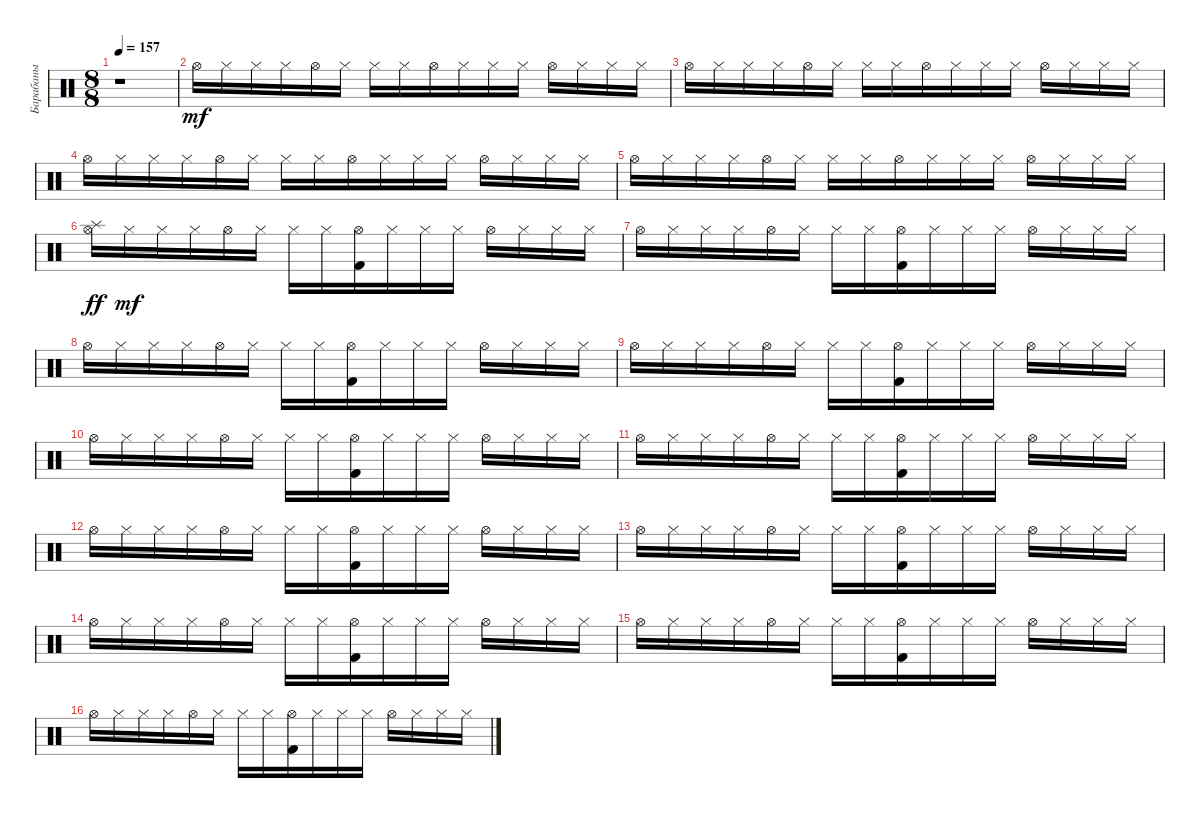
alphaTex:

\track ("Барабаны" "Барабаны") {instrument percussion}
\staff {score}
\articulation defaults
\ts (8 8)
\tempo 157
\clef neutral
\ks c
r.1{dy mf} |
"Hi-Hat (open)".16 "Hi-Hat (closed)".16 "Hi-Hat (closed)".16 "Hi-Hat (closed)".16 "Hi-Hat (open)".16 "Hi-Hat (closed)".16 "Hi-Hat (closed)".16 "Hi-Hat (closed)".16 "Hi-Hat (open)".16 "Hi-Hat (closed)".16 "Hi-Hat (closed)".16 "Hi-Hat (closed)".16 "Hi-Hat (open)".16 "Hi-Hat (closed)".16 "Hi-Hat (closed)".16 "Hi-Hat (closed)".16 |
"Hi-Hat (open)".16 "Hi-Hat (closed)".16 "Hi-Hat (closed)".16 "Hi-Hat (closed)".16 "Hi-Hat (open)".16 "Hi-Hat (closed)".16 "Hi-Hat (closed)".16 "Hi-Hat (closed)".16 "Hi-Hat (open)".16 "Hi-Hat (closed)".16 "Hi-Hat (closed)".16 "Hi-Hat (closed)".16 "Hi-Hat (open)".16 "Hi-Hat (closed)".16 "Hi-Hat (closed)".16 "Hi-Hat (closed)".16 |
"Hi-Hat (open)".16 "Hi-Hat (closed)".16 "Hi-Hat (closed)".16 "Hi-Hat (closed)".16 "Hi-Hat (open)".16 "Hi-Hat (closed)".16 "Hi-Hat (closed)".16 "Hi-Hat (closed)".16 "Hi-Hat (open)".16 "Hi-Hat (closed)".16 "Hi-Hat (closed)".16 "Hi-Hat (closed)".16 "Hi-Hat (open)".16 "Hi-Hat (closed)".16 "Hi-Hat (closed)".16 "Hi-Hat (closed)".16 |
"Hi-Hat (open)".16 "Hi-Hat (closed)".16 "Hi-Hat (closed)".16 "Hi-Hat (closed)".16 "Hi-Hat (open)".16 "Hi-Hat (closed)".16 "Hi-Hat (closed)".16 "Hi-Hat (closed)".16 "Hi-Hat (open)".16 "Hi-Hat (closed)".16 "Hi-Hat (closed)".16 "Hi-Hat (closed)".16 "Hi-Hat (open)".16 "Hi-Hat (closed)".16 "Hi-Hat (closed)".16 "Hi-Hat (closed)".16 |
("Hi-Hat (open)" "Splash (hit)").16{dy ff} "Hi-Hat (closed)".16{dy mf} "Hi-Hat (closed)".16 "Hi-Hat (closed)".16 "Hi-Hat (open)".16 "Hi-Hat (closed)".16 "Hi-Hat (closed)".16 "Hi-Hat (closed)".16 ("Kick (hit) 2" "Hi-Hat (open)").16 "Hi-Hat (closed)".16 "Hi-Hat (closed)".16 "Hi-Hat (closed)".16 "Hi-Hat (open)".16 "Hi-Hat (closed)".16 "Hi-Hat (closed)".16 "Hi-Hat (closed)".16 |
"Hi-Hat (open)".16 "Hi-Hat (closed)".16 "Hi-Hat (closed)".16 "Hi-Hat (closed)".16 "Hi-Hat (open)".16 "Hi-Hat (closed)".16 "Hi-Hat (closed)".16 "Hi-Hat (closed)".16 ("Kick (hit) 2" "Hi-Hat (open)").16 "Hi-Hat (closed)".16 "Hi-Hat (closed)".16 "Hi-Hat (closed)".16 "Hi-Hat (open)".16 "Hi-Hat (closed)".16 "Hi-Hat (closed)".16 "Hi-Hat (closed)".16 |
"Hi-Hat (open)".16 "Hi-Hat (closed)".16 "Hi-Hat (closed)".16 "Hi-Hat (closed)".16 "Hi-Hat (open)".16 "Hi-Hat (closed)".16 "Hi-Hat (closed)".16 "Hi-Hat (closed)".16 ("Kick (hit) 2" "Hi-Hat (open)").16 "Hi-Hat (closed)".16 "Hi-Hat (closed)".16 "Hi-Hat (closed)".16 "Hi-Hat (open)".16 "Hi-Hat (closed)".16 "Hi-Hat (closed)".16 "Hi-Hat (closed)".16 |
"Hi-Hat (open)".16 "Hi-Hat (closed)".16 "Hi-Hat (closed)".16 "Hi-Hat (closed)".16 "Hi-Hat (open)".16 "Hi-Hat (closed)".16 "Hi-Hat (closed)".16 "Hi-Hat (closed)".16 ("Kick (hit) 2" "Hi-Hat (open)").16 "Hi-Hat (closed)".16 "Hi-Hat (closed)".16 "Hi-Hat (closed)".16 "Hi-Hat (open)".16 "Hi-Hat (closed)".16 "Hi-Hat (closed)".16 "Hi-Hat (closed)".16 |
"Hi-Hat (open)".16 "Hi-Hat (closed)".16 "Hi-Hat (closed)".16 "Hi-Hat (closed)".16 "Hi-Hat (open)".16 "Hi-Hat (closed)".16 "Hi-Hat (closed)".16 "Hi-Hat (closed)".16 ("Kick (hit) 2" "Hi-Hat (open)").16 "Hi-Hat (closed)".16 "Hi-Hat (closed)".16 "Hi-Hat (closed)".16 "Hi-Hat (open)".16 "Hi-Hat (closed)".16 "Hi-Hat (closed)".16 "Hi-Hat (closed)".16 |
"Hi-Hat (open)".16 "Hi-Hat (closed)".16 "Hi-Hat (closed)".16 "Hi-Hat (closed)".16 "Hi-Hat (open)".16 "Hi-Hat (closed)".16 "Hi-Hat (closed)".16 "Hi-Hat (closed)".16 ("Kick (hit) 2" "Hi-Hat (open)").16 "Hi-Hat (closed)".16 "Hi-Hat (closed)".16 "Hi-Hat (closed)".16 "Hi-Hat (open)".16 "Hi-Hat (closed)".16 "Hi-Hat (closed)".16 "Hi-Hat (closed)".16 |
"Hi-Hat (open)".16 "Hi-Hat (closed)".16 "Hi-Hat (closed)".16 "Hi-Hat (closed)".16 "Hi-Hat (open)".16 "Hi-Hat (closed)".16 "Hi-Hat (closed)".16 "Hi-Hat (closed)".16 ("Kick (hit) 2" "Hi-Hat (open)").16 "Hi-Hat (closed)".16 "Hi-Hat (closed)".16 "Hi-Hat (closed)".16 "Hi-Hat (open)".16 "Hi-Hat (closed)".16 "Hi-Hat (closed)".16 "Hi-Hat (closed)".16 |
"Hi-Hat (open)".16 "Hi-Hat (closed)".16 "Hi-Hat (closed)".16 "Hi-Hat (closed)".16 "Hi-Hat (open)".16 "Hi-Hat (closed)".16 "Hi-Hat (closed)".16 "Hi-Hat (closed)".16 ("Kick (hit) 2" "Hi-Hat (open)").16 "Hi-Hat (closed)".16 "Hi-Hat (closed)".16 "Hi-Hat (closed)".16 "Hi-Hat (open)".16 "Hi-Hat (closed)".16 "Hi-Hat (closed)".16 "Hi-Hat (closed)".16 |
"Hi-Hat (open)".16 "Hi-Hat (closed)".16 "Hi-Hat (closed)".16 "Hi-Hat (closed)".16 "Hi-Hat (open)".16 "Hi-Hat (closed)".16 "Hi-Hat (closed)".16 "Hi-Hat (closed)".16 ("Kick (hit) 2" "Hi-Hat (open)").16 "Hi-Hat (closed)".16 "Hi-Hat (closed)".16 "Hi-Hat (closed)".16 "Hi-Hat (open)".16 "Hi-Hat (closed)".16 "Hi-Hat (closed)".16 "Hi-Hat (closed)".16 |
"Hi-Hat (open)".16 "Hi-Hat (closed)".16 "Hi-Hat (closed)".16 "Hi-Hat (closed)".16 "Hi-Hat (open)".16 "Hi-Hat (closed)".16 "Hi-Hat (closed)".16 "Hi-Hat (closed)".16 ("Kick (hit) 2" "Hi-Hat (open)").16 "Hi-Hat (closed)".16 "Hi-Hat (closed)".16 "Hi-Hat (closed)".16 "Hi-Hat (open)".16 "Hi-Hat (closed)".16 "Hi-Hat (closed)".16 "Hi-Hat (closed)".16 |
"Hi-Hat (open)".16 "Hi-Hat (closed)".16 "Hi-Hat (closed)".16 "Hi-Hat (closed)".16 "Hi-Hat (open)".16 "Hi-Hat (closed)".16 "Hi-Hat (closed)".16 "Hi-Hat (closed)".16 ("Kick (hit) 2" "Hi-Hat (open)").16 "Hi-Hat (closed)".16 "Hi-Hat (closed)".16 "Hi-Hat (closed)".16 "Hi-Hat (open)".16 "Hi-Hat (closed)".16 "Hi-Hat (closed)".16 "Hi-Hat (closed)".16
